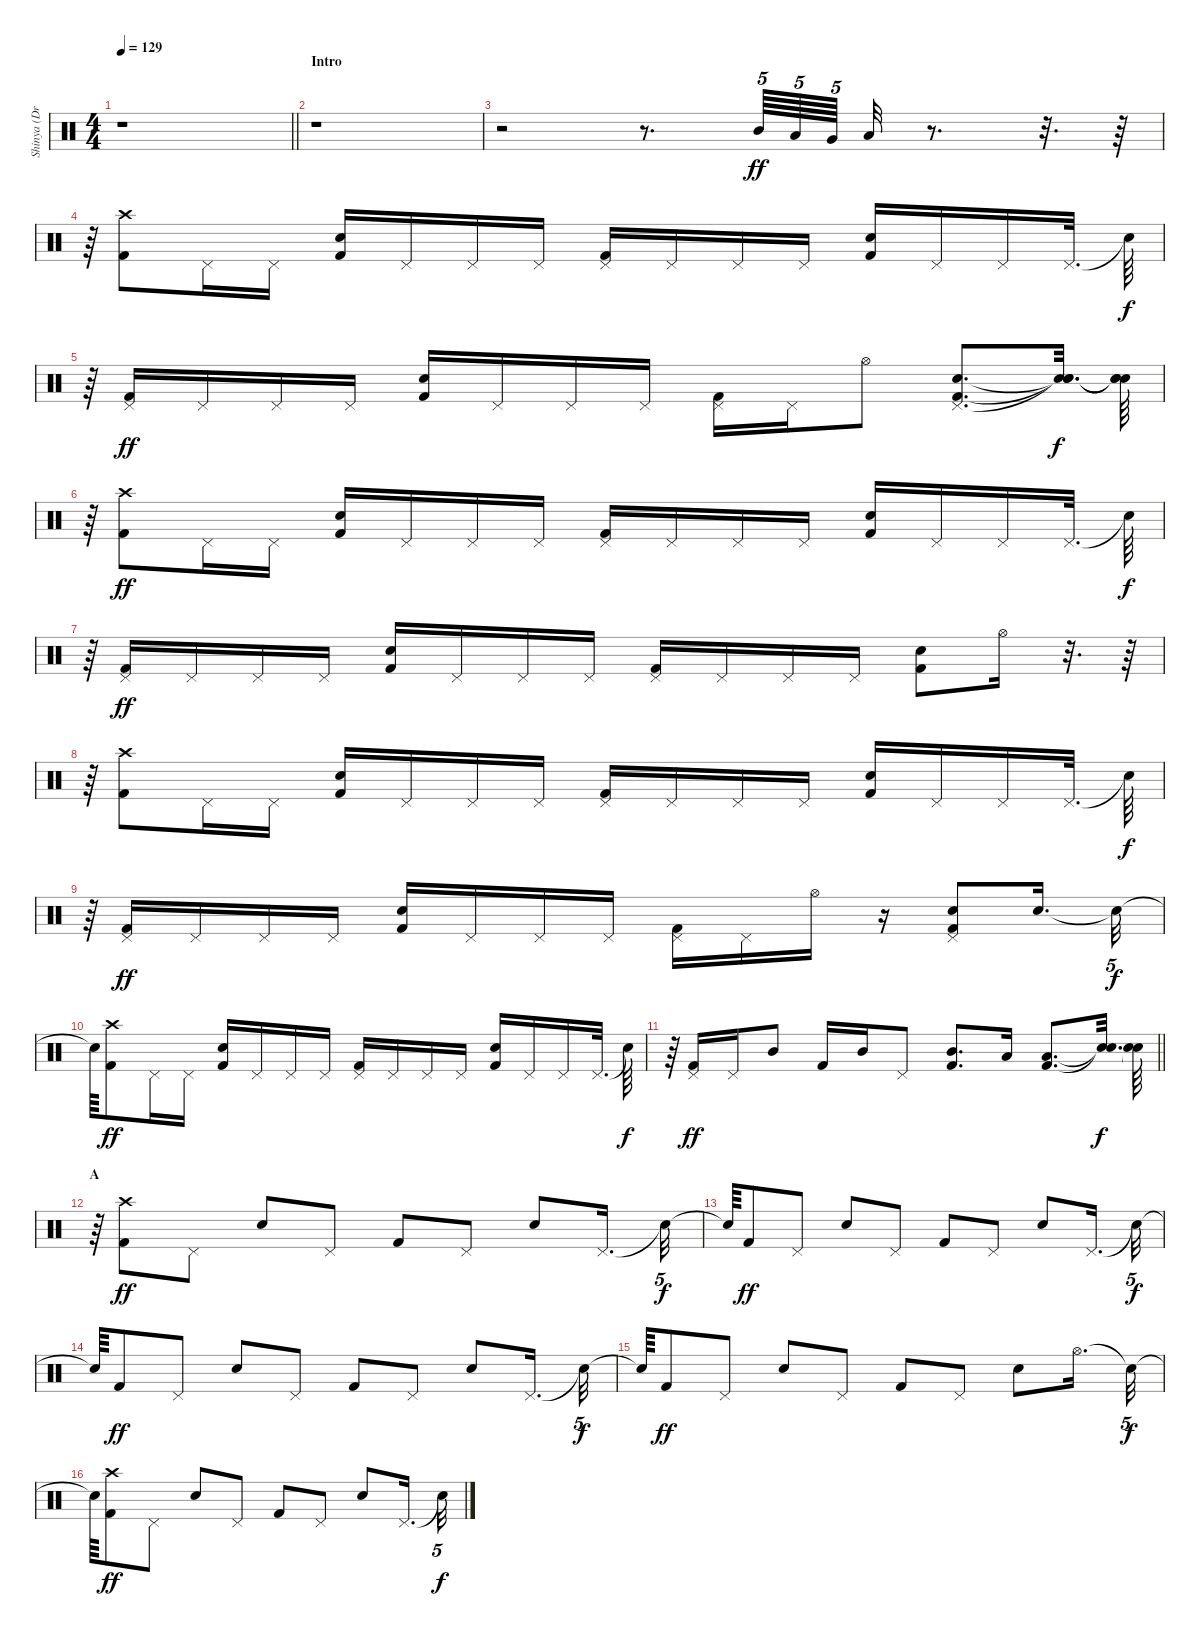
\track ("Shinya (Drums)" "Shinya (Dr") {instrument percussion}
\staff {score}
\articulation defaults
\ts (4 4)
\tempo 129
\clef neutral
\barLineRight lightlight
\ks c
r.1{dy ff} |
\section ("" "Intro")
r.1 |
r.2 r.8{d} "Mid Tom (hit)".64{tu (5 4)} "Low Tom (hit)".64{tu (5 4)} "Very Low Tom (hit)".64{tu (5 4) beam splitsecondary} "Low Floor Tom (hit)".32 r.8{d} r.32{d} r.64 |
r.64 ("Crash high (hit)" "Kick (hit) 2").8 "Pedal Hi-Hat (hit)".16 "Pedal Hi-Hat (hit)".16 ("Electric Snare (hit)" "Kick (hit) 2").16 "Pedal Hi-Hat (hit)".16 "Pedal Hi-Hat (hit)".16 "Pedal Hi-Hat (hit)".16 ("Pedal Hi-Hat (hit)" "Kick (hit) 2").16 "Pedal Hi-Hat (hit)".16 "Pedal Hi-Hat (hit)".16 "Pedal Hi-Hat (hit)".16 ("Electric Snare (hit)" "Kick (hit) 2").16 "Pedal Hi-Hat (hit)".16 "Pedal Hi-Hat (hit)".16 "Pedal Hi-Hat (hit)".32{d} "Snare (hit)"{t}.64{dy f} |
r.64 ("Kick (hit) 2" "Pedal Hi-Hat (hit)").16{dy ff} "Pedal Hi-Hat (hit)".16 "Pedal Hi-Hat (hit)".16 "Pedal Hi-Hat (hit)".16 ("Kick (hit) 2" "Electric Snare (hit)").16 "Pedal Hi-Hat (hit)".16 "Pedal Hi-Hat (hit)".16 "Pedal Hi-Hat (hit)".16 ("Kick (hit) 2" "Pedal Hi-Hat (hit)").16 "Pedal Hi-Hat (hit)".16 "Hi-Hat (open)".8 ("Kick (hit) 2" "Pedal Hi-Hat (hit)" "Electric Snare (hit)").8{d} ("Snare (hit)"{t} "Snare (hit)"{t} "Snare (hit)"{t}).32{d dy f} ("Snare (hit)"{t} "Snare (hit)"{t} "Snare (hit)"{t}).64 |
r.64 ("Crash high (hit)" "Kick (hit) 2").8{dy ff} "Pedal Hi-Hat (hit)".16 "Pedal Hi-Hat (hit)".16 ("Electric Snare (hit)" "Kick (hit) 2").16 "Pedal Hi-Hat (hit)".16 "Pedal Hi-Hat (hit)".16 "Pedal Hi-Hat (hit)".16 ("Pedal Hi-Hat (hit)" "Kick (hit) 2").16 "Pedal Hi-Hat (hit)".16 "Pedal Hi-Hat (hit)".16 "Pedal Hi-Hat (hit)".16 ("Electric Snare (hit)" "Kick (hit) 2").16 "Pedal Hi-Hat (hit)".16 "Pedal Hi-Hat (hit)".16 "Pedal Hi-Hat (hit)".32{d} "Snare (hit)"{t}.64{dy f} |
r.64 ("Kick (hit) 2" "Pedal Hi-Hat (hit)").16{dy ff} "Pedal Hi-Hat (hit)".16 "Pedal Hi-Hat (hit)".16 "Pedal Hi-Hat (hit)".16 ("Electric Snare (hit)" "Kick (hit) 2").16 "Pedal Hi-Hat (hit)".16 "Pedal Hi-Hat (hit)".16 "Pedal Hi-Hat (hit)".16 ("Pedal Hi-Hat (hit)" "Kick (hit) 2").16 "Pedal Hi-Hat (hit)".16 "Pedal Hi-Hat (hit)".16 "Pedal Hi-Hat (hit)".16 ("Electric Snare (hit)" "Kick (hit) 2").8 "Hi-Hat (open)".16 r.32{d} r.64 |
r.64 ("Crash high (hit)" "Kick (hit) 2").8 "Pedal Hi-Hat (hit)".16 "Pedal Hi-Hat (hit)".16 ("Electric Snare (hit)" "Kick (hit) 2").16 "Pedal Hi-Hat (hit)".16 "Pedal Hi-Hat (hit)".16 "Pedal Hi-Hat (hit)".16 ("Pedal Hi-Hat (hit)" "Kick (hit) 2").16 "Pedal Hi-Hat (hit)".16 "Pedal Hi-Hat (hit)".16 "Pedal Hi-Hat (hit)".16 ("Electric Snare (hit)" "Kick (hit) 2").16 "Pedal Hi-Hat (hit)".16 "Pedal Hi-Hat (hit)".16 "Pedal Hi-Hat (hit)".32{d} "Snare (hit)"{t}.64{dy f} |
r.64 ("Kick (hit) 2" "Pedal Hi-Hat (hit)").16{dy ff} "Pedal Hi-Hat (hit)".16 "Pedal Hi-Hat (hit)".16 "Pedal Hi-Hat (hit)".16 ("Electric Snare (hit)" "Kick (hit) 2").16 "Pedal Hi-Hat (hit)".16 "Pedal Hi-Hat (hit)".16 "Pedal Hi-Hat (hit)".16 ("Pedal Hi-Hat (hit)" "Kick (hit) 2").16 "Pedal Hi-Hat (hit)".16 "Hi-Hat (open)".16 r.16 ("Kick (hit) 2" "Electric Snare (hit)" "Pedal Hi-Hat (hit)").8 "Electric Snare (hit)".16{d} "Snare (hit)"{t}.32{tu (5 4) dy f} |
"Snare (hit)"{t}.64 ("Crash high (hit)" "Kick (hit) 2").8{dy ff} "Pedal Hi-Hat (hit)".16 "Pedal Hi-Hat (hit)".16 ("Electric Snare (hit)" "Kick (hit) 2").16 "Pedal Hi-Hat (hit)".16 "Pedal Hi-Hat (hit)".16 "Pedal Hi-Hat (hit)".16 ("Pedal Hi-Hat (hit)" "Kick (hit) 2").16 "Pedal Hi-Hat (hit)".16 "Pedal Hi-Hat (hit)".16 "Pedal Hi-Hat (hit)".16 ("Electric Snare (hit)" "Kick (hit) 2").16 "Pedal Hi-Hat (hit)".16 "Pedal Hi-Hat (hit)".16 "Pedal Hi-Hat (hit)".32{d} "Snare (hit)"{t}.64{dy f} |
\barLineRight lightlight
r.64 ("Kick (hit) 2" "Pedal Hi-Hat (hit)").16{dy ff} "Pedal Hi-Hat (hit)".16 "Mid Tom (hit)".8 "Kick (hit) 2".16 "Mid Tom (hit)".16 "Pedal Hi-Hat (hit)".8 ("Kick (hit) 2" "Mid Tom (hit)").8{d} "Low Tom (hit)".16 ("Kick (hit) 2" "Low Tom (hit)").8{d} ("Snare (hit)"{t} "Snare (hit)"{t}).32{d dy f} ("Snare (hit)"{t} "Snare (hit)"{t}).64 |
\section ("" "A")
r.64 ("Crash high (hit)" "Kick (hit) 2").8{dy ff} "Pedal Hi-Hat (hit)".8 "Electric Snare (hit)".8 "Pedal Hi-Hat (hit)".8 "Kick (hit) 2".8 "Pedal Hi-Hat (hit)".8 "Electric Snare (hit)".8 "Pedal Hi-Hat (hit)".16{d} "Snare (hit)"{t}.32{tu (5 4) dy f} |
"Snare (hit)"{t}.64 "Kick (hit) 2".8{dy ff} "Pedal Hi-Hat (hit)".8 "Electric Snare (hit)".8 "Pedal Hi-Hat (hit)".8 "Kick (hit) 2".8 "Pedal Hi-Hat (hit)".8 "Electric Snare (hit)".8 "Pedal Hi-Hat (hit)".16{d} "Snare (hit)"{t}.32{tu (5 4) dy f} |
"Snare (hit)"{t}.64 "Kick (hit) 2".8{dy ff} "Pedal Hi-Hat (hit)".8 "Electric Snare (hit)".8 "Pedal Hi-Hat (hit)".8 "Kick (hit) 2".8 "Pedal Hi-Hat (hit)".8 "Electric Snare (hit)".8 "Pedal Hi-Hat (hit)".16{d} "Snare (hit)"{t}.32{tu (5 4) dy f} |
"Snare (hit)"{t}.64 "Kick (hit) 2".8{dy ff} "Pedal Hi-Hat (hit)".8 "Electric Snare (hit)".8 "Pedal Hi-Hat (hit)".8 "Kick (hit) 2".8 "Pedal Hi-Hat (hit)".8 "Electric Snare (hit)".8 "Hi-Hat (open)".16{d} "Snare (hit)"{t}.32{tu (5 4) dy f} |
"Snare (hit)"{t}.64 ("Crash high (hit)" "Kick (hit) 2").8{dy ff} "Pedal Hi-Hat (hit)".8 "Electric Snare (hit)".8 "Pedal Hi-Hat (hit)".8 "Kick (hit) 2".8 "Pedal Hi-Hat (hit)".8 "Electric Snare (hit)".8 "Pedal Hi-Hat (hit)".16{d} "Snare (hit)"{t}.32{tu (5 4) dy f}
